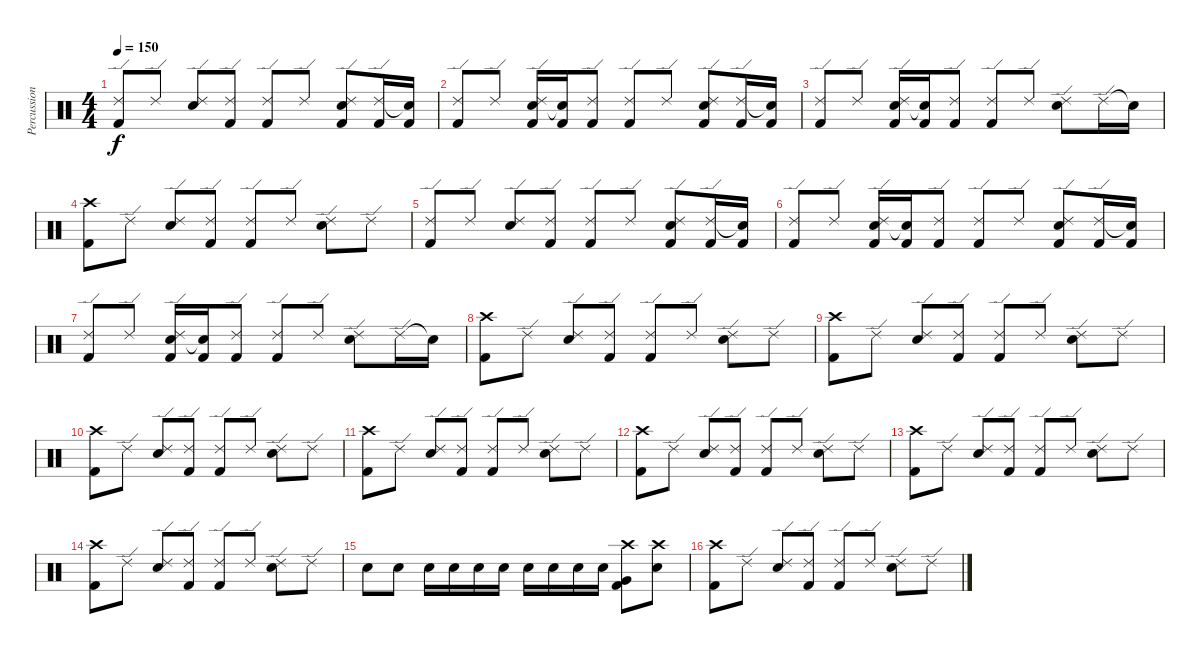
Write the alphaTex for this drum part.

\track ("Percussion" "Percussion") {instrument percussion}
\staff {score}
\articulation defaults
\ts (4 4)
\tempo 150
\clef neutral
\ks c
("Ride (edge) 2" "Kick (hit) 2").8{dy f} "Ride (edge) 2".8 ("Ride (edge) 2" "Electric Snare (hit)").8 ("Ride (edge) 2" "Kick (hit) 2").8 ("Ride (edge) 2" "Kick (hit) 2").8 "Ride (edge) 2".8 ("Electric Snare (hit)" "Ride (edge) 2" "Kick (hit) 2").8 ("Ride (edge) 2" "Kick (hit) 2").16 ("Snare (hit)"{t} "Kick (hit) 2").16 |
("Ride (edge) 2" "Kick (hit) 2").8 "Ride (edge) 2".8 ("Electric Snare (hit)" "Ride (edge) 2" "Kick (hit) 2").16 ("Snare (hit)"{t} "Kick (hit) 2").16 ("Ride (edge) 2" "Kick (hit) 2").8 ("Ride (edge) 2" "Kick (hit) 2").8 "Ride (edge) 2".8 ("Electric Snare (hit)" "Ride (edge) 2" "Kick (hit) 2").8 ("Ride (edge) 2" "Kick (hit) 2").16 ("Snare (hit)"{t} "Kick (hit) 2").16 |
("Ride (edge) 2" "Kick (hit) 2").8 "Ride (edge) 2".8 ("Electric Snare (hit)" "Ride (edge) 2" "Kick (hit) 2").16 ("Snare (hit)"{t} "Kick (hit) 2").16 ("Ride (edge) 2" "Kick (hit) 2").8 ("Ride (edge) 2" "Kick (hit) 2").8 "Ride (edge) 2".8 ("Electric Snare (hit)" "Ride (edge) 2").8 "Ride (edge) 2".16 "Snare (hit)"{t}.16 |
("Crash high (hit)" "Kick (hit) 2").8 "Ride (edge) 2".8 ("Ride (edge) 2" "Electric Snare (hit)").8 ("Ride (edge) 2" "Kick (hit) 2").8 ("Ride (edge) 2" "Kick (hit) 2").8 "Ride (edge) 2".8 ("Ride (edge) 2" "Electric Snare (hit)").8 "Ride (edge) 2".8 |
("Ride (edge) 2" "Kick (hit) 2").8 "Ride (edge) 2".8 ("Ride (edge) 2" "Electric Snare (hit)").8 ("Ride (edge) 2" "Kick (hit) 2").8 ("Ride (edge) 2" "Kick (hit) 2").8 "Ride (edge) 2".8 ("Electric Snare (hit)" "Ride (edge) 2" "Kick (hit) 2").8 ("Ride (edge) 2" "Kick (hit) 2").16 ("Snare (hit)"{t} "Kick (hit) 2").16 |
("Ride (edge) 2" "Kick (hit) 2").8 "Ride (edge) 2".8 ("Electric Snare (hit)" "Ride (edge) 2" "Kick (hit) 2").16 ("Snare (hit)"{t} "Kick (hit) 2").16 ("Ride (edge) 2" "Kick (hit) 2").8 ("Ride (edge) 2" "Kick (hit) 2").8 "Ride (edge) 2".8 ("Electric Snare (hit)" "Ride (edge) 2" "Kick (hit) 2").8 ("Ride (edge) 2" "Kick (hit) 2").16 ("Snare (hit)"{t} "Kick (hit) 2").16 |
("Ride (edge) 2" "Kick (hit) 2").8 "Ride (edge) 2".8 ("Electric Snare (hit)" "Ride (edge) 2" "Kick (hit) 2").16 ("Snare (hit)"{t} "Kick (hit) 2").16 ("Ride (edge) 2" "Kick (hit) 2").8 ("Ride (edge) 2" "Kick (hit) 2").8 "Ride (edge) 2".8 ("Electric Snare (hit)" "Ride (edge) 2").8 "Ride (edge) 2".16 "Snare (hit)"{t}.16 |
("Crash high (hit)" "Kick (hit) 2").8 "Ride (edge) 2".8 ("Ride (edge) 2" "Electric Snare (hit)").8 ("Ride (edge) 2" "Kick (hit) 2").8 ("Ride (edge) 2" "Kick (hit) 2").8 "Ride (edge) 2".8 ("Ride (edge) 2" "Electric Snare (hit)").8 "Ride (edge) 2".8 |
("Crash high (hit)" "Kick (hit) 2").8 "Ride (edge) 2".8 ("Ride (edge) 2" "Electric Snare (hit)").8 ("Ride (edge) 2" "Kick (hit) 2").8 ("Ride (edge) 2" "Kick (hit) 2").8 "Ride (edge) 2".8 ("Ride (edge) 2" "Electric Snare (hit)").8 "Ride (edge) 2".8 |
("Crash high (hit)" "Kick (hit) 2").8 "Ride (edge) 2".8 ("Ride (edge) 2" "Electric Snare (hit)").8 ("Ride (edge) 2" "Kick (hit) 2").8 ("Ride (edge) 2" "Kick (hit) 2").8 "Ride (edge) 2".8 ("Ride (edge) 2" "Electric Snare (hit)").8 "Ride (edge) 2".8 |
("Crash high (hit)" "Kick (hit) 2").8 "Ride (edge) 2".8 ("Ride (edge) 2" "Electric Snare (hit)").8 ("Ride (edge) 2" "Kick (hit) 2").8 ("Ride (edge) 2" "Kick (hit) 2").8 "Ride (edge) 2".8 ("Ride (edge) 2" "Electric Snare (hit)").8 "Ride (edge) 2".8 |
("Crash high (hit)" "Kick (hit) 2").8 "Ride (edge) 2".8 ("Ride (edge) 2" "Electric Snare (hit)").8 ("Ride (edge) 2" "Kick (hit) 2").8 ("Ride (edge) 2" "Kick (hit) 2").8 "Ride (edge) 2".8 ("Ride (edge) 2" "Electric Snare (hit)").8 "Ride (edge) 2".8 |
("Crash high (hit)" "Kick (hit) 2").8 "Ride (edge) 2".8 ("Ride (edge) 2" "Electric Snare (hit)").8 ("Ride (edge) 2" "Kick (hit) 2").8 ("Ride (edge) 2" "Kick (hit) 2").8 "Ride (edge) 2".8 ("Ride (edge) 2" "Electric Snare (hit)").8 "Ride (edge) 2".8 |
("Crash high (hit)" "Kick (hit) 2").8 "Ride (edge) 2".8 ("Ride (edge) 2" "Electric Snare (hit)").8 ("Ride (edge) 2" "Kick (hit) 2").8 ("Ride (edge) 2" "Kick (hit) 2").8 "Ride (edge) 2".8 ("Ride (edge) 2" "Electric Snare (hit)").8 "Ride (edge) 2".8 |
"Electric Snare (hit)".8 "Electric Snare (hit)".8 "Electric Snare (hit)".16 "Electric Snare (hit)".16 "Electric Snare (hit)".16 "Electric Snare (hit)".16 "Electric Snare (hit)".16 "Electric Snare (hit)".16 "Electric Snare (hit)".16 "Electric Snare (hit)".16 ("Crash high (hit)" "Very Low Tom (hit)" "Kick (hit) 2").8 ("Crash high (hit)" "Electric Snare (hit)").8 |
("Crash high (hit)" "Kick (hit) 2").8 "Ride (edge) 2".8 ("Ride (edge) 2" "Electric Snare (hit)").8 ("Ride (edge) 2" "Kick (hit) 2").8 ("Ride (edge) 2" "Kick (hit) 2").8 "Ride (edge) 2".8 ("Ride (edge) 2" "Electric Snare (hit)").8 "Ride (edge) 2".8
